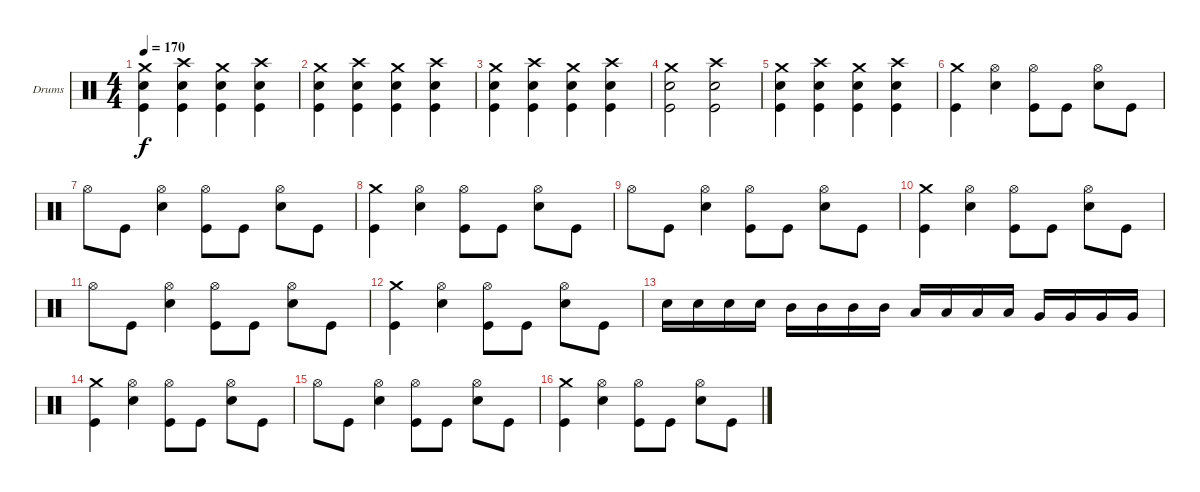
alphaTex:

\bracketExtendMode groupsimilarinstruments
\firstSystemTrackNameOrientation horizontal
\otherSystemsTrackNameOrientation horizontal
\track ("Ударные" "Drums") {instrument percussion}
\staff {score}
\articulation defaults
\ts (4 4)
\tempo 170
\clef neutral
\ks c
("Crash medium (hit)" "Snare (hit) 2" "Kick (hit)").4{dy f} ("Crash high (hit)" "Snare (hit) 2" "Kick (hit)").4 ("Crash medium (hit)" "Snare (hit) 2" "Kick (hit)").4 ("Crash high (hit)" "Snare (hit) 2" "Kick (hit)").4 |
("Crash medium (hit)" "Snare (hit) 2" "Kick (hit)").4 ("Crash high (hit)" "Snare (hit) 2" "Kick (hit)").4 ("Crash medium (hit)" "Snare (hit) 2" "Kick (hit)").4 ("Crash high (hit)" "Snare (hit) 2" "Kick (hit)").4 |
("Crash medium (hit)" "Snare (hit) 2" "Kick (hit)").4 ("Crash high (hit)" "Snare (hit) 2" "Kick (hit)").4 ("Crash medium (hit)" "Snare (hit) 2" "Kick (hit)").4 ("Crash high (hit)" "Snare (hit) 2" "Kick (hit)").4 |
("Crash medium (hit)" "Snare (hit) 2" "Kick (hit)").2 ("Crash high (hit)" "Snare (hit) 2" "Kick (hit)").2 |
("Crash medium (hit)" "Snare (hit) 2" "Kick (hit)").4 ("Crash high (hit)" "Snare (hit) 2" "Kick (hit)").4 ("Crash medium (hit)" "Snare (hit) 2" "Kick (hit)").4 ("Crash high (hit)" "Snare (hit) 2" "Kick (hit)").4 |
("Crash medium (hit)" "Kick (hit)").4 ("Hi-Hat (open)" "Snare (hit) 2").4 ("Hi-Hat (open)" "Kick (hit)").8 "Kick (hit)".8 ("Hi-Hat (open)" "Snare (hit) 2").8 "Kick (hit)".8 |
"Hi-Hat (open)".8 "Kick (hit)".8 ("Hi-Hat (open)" "Snare (hit) 2").4 ("Hi-Hat (open)" "Kick (hit)").8 "Kick (hit)".8 ("Hi-Hat (open)" "Snare (hit) 2").8 "Kick (hit)".8 |
("Crash medium (hit)" "Kick (hit)").4 ("Hi-Hat (open)" "Snare (hit) 2").4 ("Hi-Hat (open)" "Kick (hit)").8 "Kick (hit)".8 ("Hi-Hat (open)" "Snare (hit) 2").8 "Kick (hit)".8 |
"Hi-Hat (open)".8 "Kick (hit)".8 ("Hi-Hat (open)" "Snare (hit) 2").4 ("Hi-Hat (open)" "Kick (hit)").8 "Kick (hit)".8 ("Hi-Hat (open)" "Snare (hit) 2").8 "Kick (hit)".8 |
("Crash medium (hit)" "Kick (hit)").4 ("Hi-Hat (open)" "Snare (hit) 2").4 ("Hi-Hat (open)" "Kick (hit)").8 "Kick (hit)".8 ("Hi-Hat (open)" "Snare (hit) 2").8 "Kick (hit)".8 |
"Hi-Hat (open)".8 "Kick (hit)".8 ("Hi-Hat (open)" "Snare (hit) 2").4 ("Hi-Hat (open)" "Kick (hit)").8 "Kick (hit)".8 ("Hi-Hat (open)" "Snare (hit) 2").8 "Kick (hit)".8 |
("Crash medium (hit)" "Kick (hit)").4 ("Hi-Hat (open)" "Snare (hit) 2").4 ("Hi-Hat (open)" "Kick (hit)").8 "Kick (hit)".8 ("Hi-Hat (open)" "Snare (hit) 2").8 "Kick (hit)".8 |
"Snare (hit) 2".16 "Snare (hit) 2".16 "Snare (hit) 2".16 "Snare (hit) 2".16 "Mid Tom (hit)".16 "Mid Tom (hit)".16 "Mid Tom (hit)".16 "Mid Tom (hit)".16 "Low Tom (hit)".16 "Low Tom (hit)".16 "Low Tom (hit)".16 "Low Tom (hit)".16 "Very Low Tom (hit)".16 "Very Low Tom (hit)".16 "Very Low Tom (hit)".16 "Very Low Tom (hit)".16 |
("Crash medium (hit)" "Kick (hit)").4 ("Hi-Hat (open)" "Snare (hit) 2").4 ("Hi-Hat (open)" "Kick (hit)").8 "Kick (hit)".8 ("Hi-Hat (open)" "Snare (hit) 2").8 "Kick (hit)".8 |
"Hi-Hat (open)".8 "Kick (hit)".8 ("Hi-Hat (open)" "Snare (hit) 2").4 ("Hi-Hat (open)" "Kick (hit)").8 "Kick (hit)".8 ("Hi-Hat (open)" "Snare (hit) 2").8 "Kick (hit)".8 |
("Crash medium (hit)" "Kick (hit)").4 ("Hi-Hat (open)" "Snare (hit) 2").4 ("Hi-Hat (open)" "Kick (hit)").8 "Kick (hit)".8 ("Hi-Hat (open)" "Snare (hit) 2").8 "Kick (hit)".8
